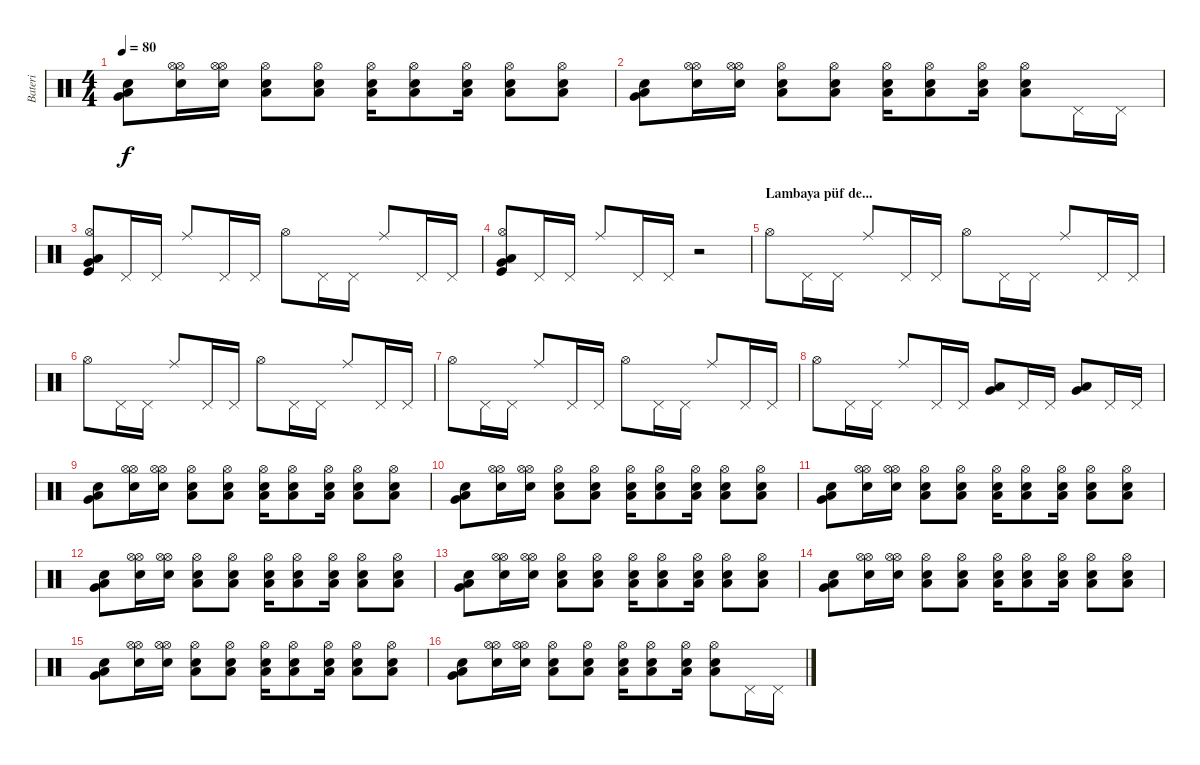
\track ("Bateri" "Bateri") {instrument percussion}
\staff {score}
\articulation defaults
\ts (4 4)
\tempo 80
\clef neutral
\ks c
("Electric Snare (hit)" "Low Floor Tom (hit)" "Very Low Tom (hit)").8{dy f} ("Hi-Hat (open)" "Hi-Hat (open)" "Electric Snare (hit)").16 ("Hi-Hat (open)" "Hi-Hat (open)" "Electric Snare (hit)").16 ("Low Floor Tom (hit)" "Hi-Hat (open)" "Electric Snare (hit)").8 ("Low Floor Tom (hit)" "Hi-Hat (open)" "Electric Snare (hit)").8 ("Low Floor Tom (hit)" "Hi-Hat (open)" "Electric Snare (hit)").16 ("Low Floor Tom (hit)" "Hi-Hat (open)" "Electric Snare (hit)").8 ("Low Floor Tom (hit)" "Hi-Hat (open)" "Electric Snare (hit)").16 ("Low Floor Tom (hit)" "Hi-Hat (open)" "Electric Snare (hit)").8 ("Low Floor Tom (hit)" "Hi-Hat (open)" "Electric Snare (hit)").8 |
("Electric Snare (hit)" "Low Floor Tom (hit)" "Very Low Tom (hit)").8 ("Hi-Hat (open)" "Hi-Hat (open)" "Electric Snare (hit)").16 ("Hi-Hat (open)" "Hi-Hat (open)" "Electric Snare (hit)").16 ("Low Floor Tom (hit)" "Hi-Hat (open)" "Electric Snare (hit)").8 ("Low Floor Tom (hit)" "Hi-Hat (open)" "Electric Snare (hit)").8 ("Low Floor Tom (hit)" "Hi-Hat (open)" "Electric Snare (hit)").16 ("Low Floor Tom (hit)" "Hi-Hat (open)" "Electric Snare (hit)").8 ("Low Floor Tom (hit)" "Hi-Hat (open)" "Electric Snare (hit)").16 ("Low Floor Tom (hit)" "Hi-Hat (open)" "Electric Snare (hit)").8 "Pedal Hi-Hat (hit)".16 "Pedal Hi-Hat (hit)".16 |
("Hi-Hat (open)" "Kick (hit)" "Very Low Tom (hit)" "Low Floor Tom (hit)").8 "Pedal Hi-Hat (hit)".16 "Pedal Hi-Hat (hit)".16 "Ride (middle)".8 "Pedal Hi-Hat (hit)".16 "Pedal Hi-Hat (hit)".16 "Hi-Hat (open)".8 "Pedal Hi-Hat (hit)".16 "Pedal Hi-Hat (hit)".16 "Ride (middle)".8 "Pedal Hi-Hat (hit)".16 "Pedal Hi-Hat (hit)".16 |
("Hi-Hat (open)" "Kick (hit)" "Very Low Tom (hit)" "Low Floor Tom (hit)").8 "Pedal Hi-Hat (hit)".16 "Pedal Hi-Hat (hit)".16 "Ride (middle)".8 "Pedal Hi-Hat (hit)".16 "Pedal Hi-Hat (hit)".16 r.2 |
\section ("" "Lambaya püf de...")
"Hi-Hat (open)".8 "Pedal Hi-Hat (hit)".16 "Pedal Hi-Hat (hit)".16 "Ride (middle)".8 "Pedal Hi-Hat (hit)".16 "Pedal Hi-Hat (hit)".16 "Hi-Hat (open)".8 "Pedal Hi-Hat (hit)".16 "Pedal Hi-Hat (hit)".16 "Ride (middle)".8 "Pedal Hi-Hat (hit)".16 "Pedal Hi-Hat (hit)".16 |
"Hi-Hat (open)".8 "Pedal Hi-Hat (hit)".16 "Pedal Hi-Hat (hit)".16 "Ride (middle)".8 "Pedal Hi-Hat (hit)".16 "Pedal Hi-Hat (hit)".16 "Hi-Hat (open)".8 "Pedal Hi-Hat (hit)".16 "Pedal Hi-Hat (hit)".16 "Ride (middle)".8 "Pedal Hi-Hat (hit)".16 "Pedal Hi-Hat (hit)".16 |
"Hi-Hat (open)".8 "Pedal Hi-Hat (hit)".16 "Pedal Hi-Hat (hit)".16 "Ride (middle)".8 "Pedal Hi-Hat (hit)".16 "Pedal Hi-Hat (hit)".16 "Hi-Hat (open)".8 "Pedal Hi-Hat (hit)".16 "Pedal Hi-Hat (hit)".16 "Ride (middle)".8 "Pedal Hi-Hat (hit)".16 "Pedal Hi-Hat (hit)".16 |
"Hi-Hat (open)".8 "Pedal Hi-Hat (hit)".16 "Pedal Hi-Hat (hit)".16 "Ride (middle)".8 "Pedal Hi-Hat (hit)".16 "Pedal Hi-Hat (hit)".16 ("Low Floor Tom (hit)" "Very Low Tom (hit)").8 "Pedal Hi-Hat (hit)".16 "Pedal Hi-Hat (hit)".16 ("Low Floor Tom (hit)" "Very Low Tom (hit)").8 "Pedal Hi-Hat (hit)".16 "Pedal Hi-Hat (hit)".16 |
("Electric Snare (hit)" "Low Floor Tom (hit)" "Very Low Tom (hit)").8 ("Hi-Hat (open)" "Hi-Hat (open)" "Electric Snare (hit)").16 ("Hi-Hat (open)" "Hi-Hat (open)" "Electric Snare (hit)").16 ("Low Floor Tom (hit)" "Hi-Hat (open)" "Electric Snare (hit)").8 ("Low Floor Tom (hit)" "Hi-Hat (open)" "Electric Snare (hit)").8 ("Low Floor Tom (hit)" "Hi-Hat (open)" "Electric Snare (hit)").16 ("Low Floor Tom (hit)" "Hi-Hat (open)" "Electric Snare (hit)").8 ("Low Floor Tom (hit)" "Hi-Hat (open)" "Electric Snare (hit)").16 ("Low Floor Tom (hit)" "Hi-Hat (open)" "Electric Snare (hit)").8 ("Low Floor Tom (hit)" "Hi-Hat (open)" "Electric Snare (hit)").8 |
("Electric Snare (hit)" "Low Floor Tom (hit)" "Very Low Tom (hit)").8 ("Hi-Hat (open)" "Hi-Hat (open)" "Electric Snare (hit)").16 ("Hi-Hat (open)" "Hi-Hat (open)" "Electric Snare (hit)").16 ("Low Floor Tom (hit)" "Hi-Hat (open)" "Electric Snare (hit)").8 ("Low Floor Tom (hit)" "Hi-Hat (open)" "Electric Snare (hit)").8 ("Low Floor Tom (hit)" "Hi-Hat (open)" "Electric Snare (hit)").16 ("Low Floor Tom (hit)" "Hi-Hat (open)" "Electric Snare (hit)").8 ("Low Floor Tom (hit)" "Hi-Hat (open)" "Electric Snare (hit)").16 ("Low Floor Tom (hit)" "Hi-Hat (open)" "Electric Snare (hit)").8 ("Low Floor Tom (hit)" "Hi-Hat (open)" "Electric Snare (hit)").8 |
("Electric Snare (hit)" "Low Floor Tom (hit)" "Very Low Tom (hit)").8 ("Hi-Hat (open)" "Hi-Hat (open)" "Electric Snare (hit)").16 ("Hi-Hat (open)" "Hi-Hat (open)" "Electric Snare (hit)").16 ("Low Floor Tom (hit)" "Hi-Hat (open)" "Electric Snare (hit)").8 ("Low Floor Tom (hit)" "Hi-Hat (open)" "Electric Snare (hit)").8 ("Low Floor Tom (hit)" "Hi-Hat (open)" "Electric Snare (hit)").16 ("Low Floor Tom (hit)" "Hi-Hat (open)" "Electric Snare (hit)").8 ("Low Floor Tom (hit)" "Hi-Hat (open)" "Electric Snare (hit)").16 ("Low Floor Tom (hit)" "Hi-Hat (open)" "Electric Snare (hit)").8 ("Low Floor Tom (hit)" "Hi-Hat (open)" "Electric Snare (hit)").8 |
("Electric Snare (hit)" "Low Floor Tom (hit)" "Very Low Tom (hit)").8 ("Hi-Hat (open)" "Hi-Hat (open)" "Electric Snare (hit)").16 ("Hi-Hat (open)" "Hi-Hat (open)" "Electric Snare (hit)").16 ("Low Floor Tom (hit)" "Hi-Hat (open)" "Electric Snare (hit)").8 ("Low Floor Tom (hit)" "Hi-Hat (open)" "Electric Snare (hit)").8 ("Low Floor Tom (hit)" "Hi-Hat (open)" "Electric Snare (hit)").16 ("Low Floor Tom (hit)" "Hi-Hat (open)" "Electric Snare (hit)").8 ("Low Floor Tom (hit)" "Hi-Hat (open)" "Electric Snare (hit)").16 ("Low Floor Tom (hit)" "Hi-Hat (open)" "Electric Snare (hit)").8 ("Low Floor Tom (hit)" "Hi-Hat (open)" "Electric Snare (hit)").8 |
("Electric Snare (hit)" "Low Floor Tom (hit)" "Very Low Tom (hit)").8 ("Hi-Hat (open)" "Hi-Hat (open)" "Electric Snare (hit)").16 ("Hi-Hat (open)" "Hi-Hat (open)" "Electric Snare (hit)").16 ("Low Floor Tom (hit)" "Hi-Hat (open)" "Electric Snare (hit)").8 ("Low Floor Tom (hit)" "Hi-Hat (open)" "Electric Snare (hit)").8 ("Low Floor Tom (hit)" "Hi-Hat (open)" "Electric Snare (hit)").16 ("Low Floor Tom (hit)" "Hi-Hat (open)" "Electric Snare (hit)").8 ("Low Floor Tom (hit)" "Hi-Hat (open)" "Electric Snare (hit)").16 ("Low Floor Tom (hit)" "Hi-Hat (open)" "Electric Snare (hit)").8 ("Low Floor Tom (hit)" "Hi-Hat (open)" "Electric Snare (hit)").8 |
("Electric Snare (hit)" "Low Floor Tom (hit)" "Very Low Tom (hit)").8 ("Hi-Hat (open)" "Hi-Hat (open)" "Electric Snare (hit)").16 ("Hi-Hat (open)" "Hi-Hat (open)" "Electric Snare (hit)").16 ("Low Floor Tom (hit)" "Hi-Hat (open)" "Electric Snare (hit)").8 ("Low Floor Tom (hit)" "Hi-Hat (open)" "Electric Snare (hit)").8 ("Low Floor Tom (hit)" "Hi-Hat (open)" "Electric Snare (hit)").16 ("Low Floor Tom (hit)" "Hi-Hat (open)" "Electric Snare (hit)").8 ("Low Floor Tom (hit)" "Hi-Hat (open)" "Electric Snare (hit)").16 ("Low Floor Tom (hit)" "Hi-Hat (open)" "Electric Snare (hit)").8 ("Low Floor Tom (hit)" "Hi-Hat (open)" "Electric Snare (hit)").8 |
("Electric Snare (hit)" "Low Floor Tom (hit)" "Very Low Tom (hit)").8 ("Hi-Hat (open)" "Hi-Hat (open)" "Electric Snare (hit)").16 ("Hi-Hat (open)" "Hi-Hat (open)" "Electric Snare (hit)").16 ("Low Floor Tom (hit)" "Hi-Hat (open)" "Electric Snare (hit)").8 ("Low Floor Tom (hit)" "Hi-Hat (open)" "Electric Snare (hit)").8 ("Low Floor Tom (hit)" "Hi-Hat (open)" "Electric Snare (hit)").16 ("Low Floor Tom (hit)" "Hi-Hat (open)" "Electric Snare (hit)").8 ("Low Floor Tom (hit)" "Hi-Hat (open)" "Electric Snare (hit)").16 ("Low Floor Tom (hit)" "Hi-Hat (open)" "Electric Snare (hit)").8 ("Low Floor Tom (hit)" "Hi-Hat (open)" "Electric Snare (hit)").8 |
("Electric Snare (hit)" "Low Floor Tom (hit)" "Very Low Tom (hit)").8 ("Hi-Hat (open)" "Hi-Hat (open)" "Electric Snare (hit)").16 ("Hi-Hat (open)" "Hi-Hat (open)" "Electric Snare (hit)").16 ("Low Floor Tom (hit)" "Hi-Hat (open)" "Electric Snare (hit)").8 ("Low Floor Tom (hit)" "Hi-Hat (open)" "Electric Snare (hit)").8 ("Low Floor Tom (hit)" "Hi-Hat (open)" "Electric Snare (hit)").16 ("Low Floor Tom (hit)" "Hi-Hat (open)" "Electric Snare (hit)").8 ("Low Floor Tom (hit)" "Hi-Hat (open)" "Electric Snare (hit)").16 ("Low Floor Tom (hit)" "Hi-Hat (open)" "Electric Snare (hit)").8 "Pedal Hi-Hat (hit)".16 "Pedal Hi-Hat (hit)".16
